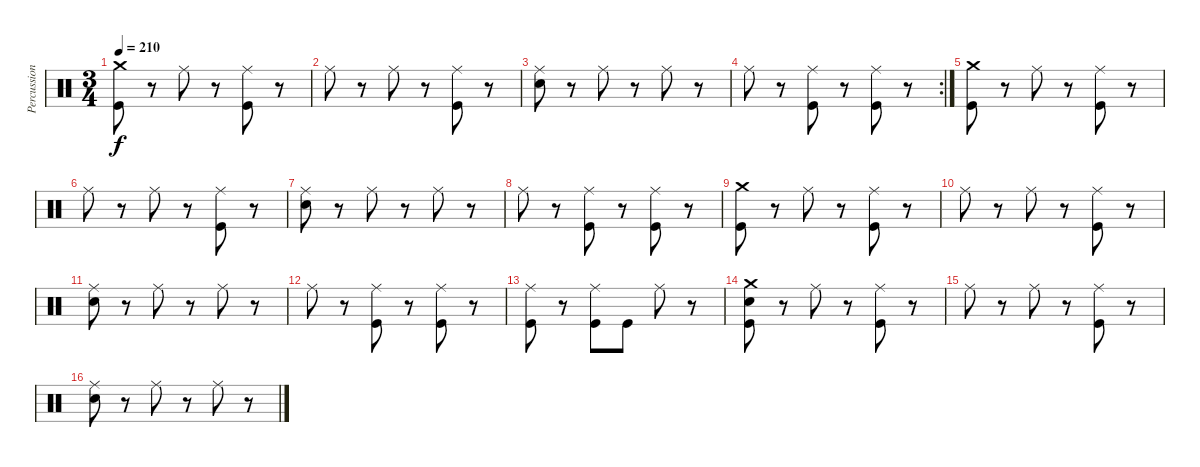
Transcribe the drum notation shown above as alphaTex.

\track ("Percussion" "Percussion") {instrument percussion}
\staff {score}
\articulation defaults
\ts (3 4)
\tempo 210
\clef neutral
\ks c
("Crash medium (hit)" "Kick (hit)").8{dy f} r.8 "Ride (middle)".8 r.8 ("Ride (middle)" "Kick (hit)").8 r.8 |
"Ride (middle)".8 r.8 "Ride (middle)".8 r.8 ("Ride (middle)" "Kick (hit)").8 r.8 |
("Ride (middle)" "Electric Snare (hit)").8 r.8 "Ride (middle)".8 r.8 "Ride (middle)".8 r.8 |
\rc 2 "Ride (middle)".8
r.8 ("Ride (middle)" "Kick (hit)").8 r.8 ("Ride (middle)" "Kick (hit)").8 r.8 |
("Crash medium (hit)" "Kick (hit)").8 r.8 "Ride (middle)".8 r.8 ("Ride (middle)" "Kick (hit)").8 r.8 |
"Ride (middle)".8 r.8 "Ride (middle)".8 r.8 ("Ride (middle)" "Kick (hit)").8 r.8 |
("Ride (middle)" "Electric Snare (hit)").8 r.8 "Ride (middle)".8 r.8 "Ride (middle)".8 r.8 |
"Ride (middle)".8 r.8 ("Ride (middle)" "Kick (hit)").8 r.8 ("Ride (middle)" "Kick (hit)").8 r.8 |
("Crash medium (hit)" "Kick (hit)").8 r.8 "Ride (middle)".8 r.8 ("Ride (middle)" "Kick (hit)").8 r.8 |
"Ride (middle)".8 r.8 "Ride (middle)".8 r.8 ("Ride (middle)" "Kick (hit)").8 r.8 |
("Ride (middle)" "Electric Snare (hit)").8 r.8 "Ride (middle)".8 r.8 "Ride (middle)".8 r.8 |
"Ride (middle)".8 r.8 ("Ride (middle)" "Kick (hit)").8 r.8 ("Ride (middle)" "Kick (hit)").8 r.8 |
("Ride (middle)" "Kick (hit)").8 r.8 ("Ride (middle)" "Kick (hit)").8 "Kick (hit)".8 "Ride (middle)".8 r.8 |
("Crash medium (hit)" "Kick (hit)" "Electric Snare (hit)").8 r.8 "Ride (middle)".8 r.8 ("Ride (middle)" "Kick (hit)").8 r.8 |
"Ride (middle)".8 r.8 "Ride (middle)".8 r.8 ("Ride (middle)" "Kick (hit)").8 r.8 |
("Ride (middle)" "Electric Snare (hit)").8 r.8 "Ride (middle)".8 r.8 "Ride (middle)".8 r.8
